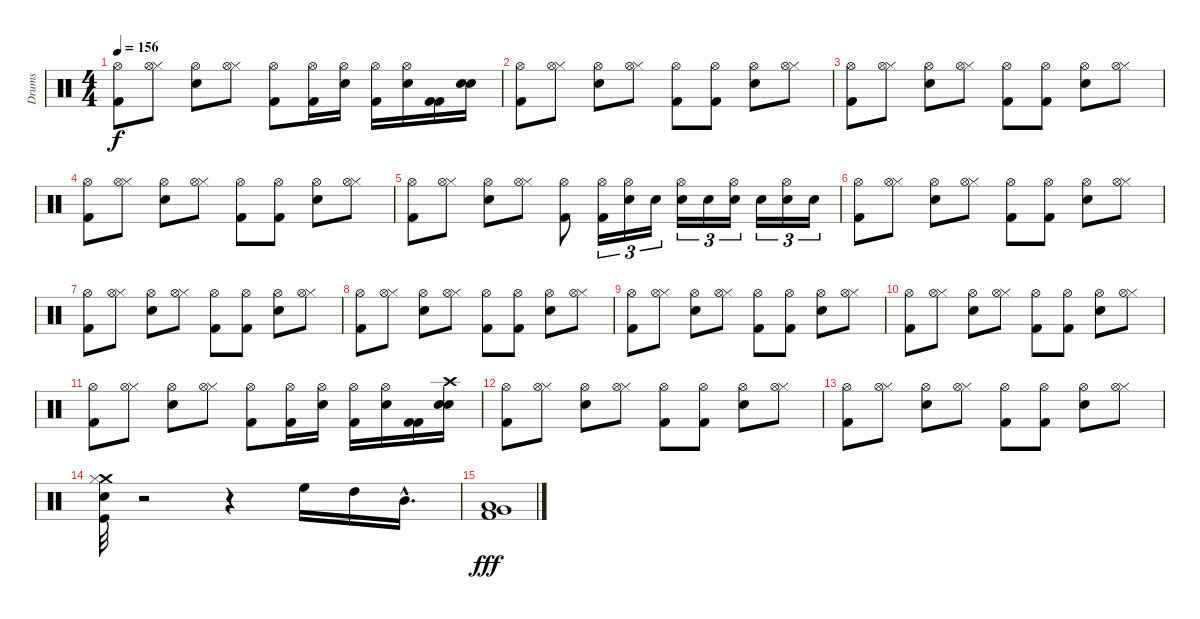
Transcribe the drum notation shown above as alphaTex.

\track ("Drums" "Drums") {instrument percussion}
\staff {score}
\articulation defaults
\ts (4 4)
\tempo 156
\clef neutral
\ks c
("Kick (hit) 2" "Hi-Hat (open)").8{dy f} ("Hi-Hat (closed)" "Hi-Hat (open)").8 ("Electric Snare (hit)" "Hi-Hat (open)").8 ("Hi-Hat (closed)" "Hi-Hat (open)").8 ("Kick (hit) 2" "Hi-Hat (open)").8 ("Kick (hit) 2" "Hi-Hat (open)").16 ("Electric Snare (hit)" "Hi-Hat (open)").16 ("Kick (hit) 2" "Hi-Hat (open)").16 ("Electric Snare (hit)" "Hi-Hat (open)").16 ("Kick (hit) 2" "Kick (hit) 2").16 ("Electric Snare (hit)" "Electric Snare (hit)").16 |
("Kick (hit) 2" "Hi-Hat (open)").8 ("Hi-Hat (closed)" "Hi-Hat (open)").8 ("Electric Snare (hit)" "Hi-Hat (open)").8 ("Hi-Hat (closed)" "Hi-Hat (open)").8 ("Kick (hit) 2" "Hi-Hat (open)").8 ("Kick (hit) 2" "Hi-Hat (open)").8 ("Electric Snare (hit)" "Hi-Hat (open)").8 ("Hi-Hat (closed)" "Hi-Hat (open)").8 |
("Kick (hit) 2" "Hi-Hat (open)").8 ("Hi-Hat (closed)" "Hi-Hat (open)").8 ("Electric Snare (hit)" "Hi-Hat (open)").8 ("Hi-Hat (closed)" "Hi-Hat (open)").8 ("Kick (hit) 2" "Hi-Hat (open)").8 ("Kick (hit) 2" "Hi-Hat (open)").8 ("Electric Snare (hit)" "Hi-Hat (open)").8 ("Hi-Hat (closed)" "Hi-Hat (open)").8 |
("Kick (hit) 2" "Hi-Hat (open)").8 ("Hi-Hat (closed)" "Hi-Hat (open)").8 ("Electric Snare (hit)" "Hi-Hat (open)").8 ("Hi-Hat (closed)" "Hi-Hat (open)").8 ("Kick (hit) 2" "Hi-Hat (open)").8 ("Kick (hit) 2" "Hi-Hat (open)").8 ("Electric Snare (hit)" "Hi-Hat (open)").8 ("Hi-Hat (closed)" "Hi-Hat (open)").8 |
("Kick (hit) 2" "Hi-Hat (open)").8 ("Hi-Hat (closed)" "Hi-Hat (open)").8 ("Electric Snare (hit)" "Hi-Hat (open)").8 ("Hi-Hat (closed)" "Hi-Hat (open)").8 ("Kick (hit) 2" "Hi-Hat (open)").8 ("Kick (hit) 2" "Hi-Hat (open)").16{tu (3 2)} ("Electric Snare (hit)" "Hi-Hat (open)").16{tu (3 2)} "Electric Snare (hit)".16{tu (3 2)} ("Electric Snare (hit)" "Hi-Hat (open)").16{tu (3 2)} "Electric Snare (hit)".16{tu (3 2)} ("Electric Snare (hit)" "Hi-Hat (open)").16{tu (3 2)} "Electric Snare (hit)".16{tu (3 2)} ("Electric Snare (hit)" "Hi-Hat (open)").16{tu (3 2)} "Electric Snare (hit)".16{tu (3 2)} |
("Kick (hit) 2" "Hi-Hat (open)").8 ("Hi-Hat (closed)" "Hi-Hat (open)").8 ("Electric Snare (hit)" "Hi-Hat (open)").8 ("Hi-Hat (closed)" "Hi-Hat (open)").8 ("Kick (hit) 2" "Hi-Hat (open)").8 ("Kick (hit) 2" "Hi-Hat (open)").8 ("Electric Snare (hit)" "Hi-Hat (open)").8 ("Hi-Hat (closed)" "Hi-Hat (open)").8 |
("Kick (hit) 2" "Hi-Hat (open)").8 ("Hi-Hat (closed)" "Hi-Hat (open)").8 ("Electric Snare (hit)" "Hi-Hat (open)").8 ("Hi-Hat (closed)" "Hi-Hat (open)").8 ("Kick (hit) 2" "Hi-Hat (open)").8 ("Kick (hit) 2" "Hi-Hat (open)").8 ("Electric Snare (hit)" "Hi-Hat (open)").8 ("Hi-Hat (closed)" "Hi-Hat (open)").8 |
("Kick (hit) 2" "Hi-Hat (open)").8 ("Hi-Hat (closed)" "Hi-Hat (open)").8 ("Electric Snare (hit)" "Hi-Hat (open)").8 ("Hi-Hat (closed)" "Hi-Hat (open)").8 ("Kick (hit) 2" "Hi-Hat (open)").8 ("Kick (hit) 2" "Hi-Hat (open)").8 ("Electric Snare (hit)" "Hi-Hat (open)").8 ("Hi-Hat (closed)" "Hi-Hat (open)").8 |
("Kick (hit) 2" "Hi-Hat (open)").8 ("Hi-Hat (closed)" "Hi-Hat (open)").8 ("Electric Snare (hit)" "Hi-Hat (open)").8 ("Hi-Hat (closed)" "Hi-Hat (open)").8 ("Kick (hit) 2" "Hi-Hat (open)").8 ("Kick (hit) 2" "Hi-Hat (open)").8 ("Electric Snare (hit)" "Hi-Hat (open)").8 ("Hi-Hat (closed)" "Hi-Hat (open)").8 |
("Kick (hit) 2" "Hi-Hat (open)").8 ("Hi-Hat (closed)" "Hi-Hat (open)").8 ("Electric Snare (hit)" "Hi-Hat (open)").8 ("Hi-Hat (closed)" "Hi-Hat (open)").8 ("Kick (hit) 2" "Hi-Hat (open)").8 ("Kick (hit) 2" "Hi-Hat (open)").8 ("Electric Snare (hit)" "Hi-Hat (open)").8 ("Hi-Hat (closed)" "Hi-Hat (open)").8 |
("Kick (hit) 2" "Hi-Hat (open)").8 ("Hi-Hat (closed)" "Hi-Hat (open)").8 ("Electric Snare (hit)" "Hi-Hat (open)").8 ("Hi-Hat (closed)" "Hi-Hat (open)").8 ("Kick (hit) 2" "Hi-Hat (open)").8 ("Kick (hit) 2" "Hi-Hat (open)").16 ("Electric Snare (hit)" "Hi-Hat (open)").16 ("Kick (hit) 2" "Hi-Hat (open)").16 ("Electric Snare (hit)" "Hi-Hat (open)").16 ("Kick (hit) 2" "Kick (hit) 2").16 ("Electric Snare (hit)" "Electric Snare (hit)" "Crash high (hit)").16 |
("Kick (hit) 2" "Hi-Hat (open)").8 ("Hi-Hat (closed)" "Hi-Hat (open)").8 ("Electric Snare (hit)" "Hi-Hat (open)").8 ("Hi-Hat (closed)" "Hi-Hat (open)").8 ("Kick (hit) 2" "Hi-Hat (open)").8 ("Kick (hit) 2" "Hi-Hat (open)").8 ("Electric Snare (hit)" "Hi-Hat (open)").8 ("Hi-Hat (closed)" "Hi-Hat (open)").8 |
("Kick (hit) 2" "Hi-Hat (open)").8 ("Hi-Hat (closed)" "Hi-Hat (open)").8 ("Electric Snare (hit)" "Hi-Hat (open)").8 ("Hi-Hat (closed)" "Hi-Hat (open)").8 ("Kick (hit) 2" "Hi-Hat (open)").8 ("Kick (hit) 2" "Hi-Hat (open)").8 ("Electric Snare (hit)" "Hi-Hat (open)").8 ("Hi-Hat (closed)" "Hi-Hat (open)").8 |
("Crash medium (hit)" "Snare (hit) 2" "Kick (hit)" "Hi-Hat (closed)").32 r.2 r.4 "High Floor Tom (hit)".16 "High Tom (hit)".16 "Mid Tom (hit)"{hac}.16{d} |
("Low Floor Tom (hit)" "Kick (hit) 2" "Very Low Tom (hit)").1{dy fff}
